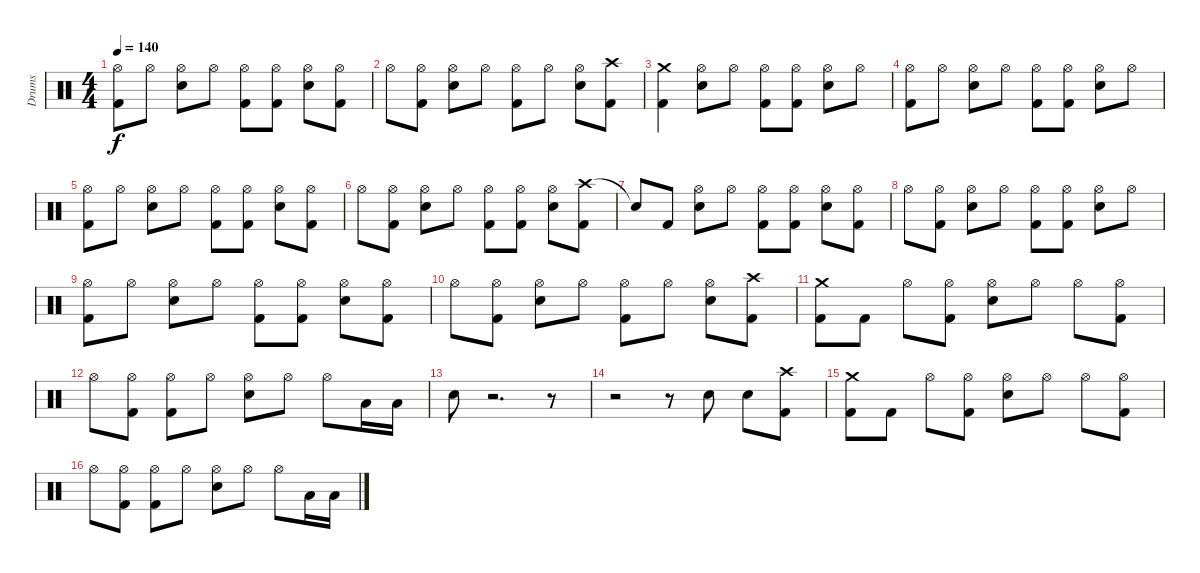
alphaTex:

\track ("Drums" "Drums") {instrument percussion}
\staff {score}
\articulation defaults
\ts (4 4)
\tempo 140
\clef neutral
\ks c
("Hi-Hat (open)" "Kick (hit) 2").8{dy f} "Hi-Hat (open)".8 ("Snare (hit) 2" "Hi-Hat (open)").8 "Hi-Hat (open)".8 ("Hi-Hat (open)" "Kick (hit) 2").8 ("Hi-Hat (open)" "Kick (hit) 2").8 ("Snare (hit) 2" "Hi-Hat (open)").8 ("Hi-Hat (open)" "Kick (hit) 2").8 |
"Hi-Hat (open)".8 ("Kick (hit) 2" "Hi-Hat (open)").8 ("Snare (hit) 2" "Hi-Hat (open)").8 "Hi-Hat (open)".8 ("Kick (hit) 2" "Hi-Hat (open)").8 "Hi-Hat (open)".8 ("Snare (hit) 2" "Hi-Hat (open)").8 ("Crash high (hit)" "Kick (hit) 2").8 |
("Crash medium (hit)" "Kick (hit) 2").4 ("Snare (hit) 2" "Hi-Hat (open)").8 "Hi-Hat (open)".8 ("Kick (hit) 2" "Hi-Hat (open)").8 ("Kick (hit) 2" "Hi-Hat (open)").8 ("Snare (hit) 2" "Hi-Hat (open)").8 "Hi-Hat (open)".8 |
("Hi-Hat (open)" "Kick (hit) 2").8 "Hi-Hat (open)".8 ("Hi-Hat (open)" "Snare (hit) 2").8 "Hi-Hat (open)".8 ("Hi-Hat (open)" "Kick (hit) 2").8 ("Hi-Hat (open)" "Kick (hit) 2").8 ("Hi-Hat (open)" "Snare (hit) 2").8 "Hi-Hat (open)".8 |
("Hi-Hat (open)" "Kick (hit) 2").8 "Hi-Hat (open)".8 ("Snare (hit) 2" "Hi-Hat (open)").8 "Hi-Hat (open)".8 ("Hi-Hat (open)" "Kick (hit) 2").8 ("Hi-Hat (open)" "Kick (hit) 2").8 ("Snare (hit) 2" "Hi-Hat (open)").8 ("Hi-Hat (open)" "Kick (hit) 2").8 |
"Hi-Hat (open)".8 ("Hi-Hat (open)" "Kick (hit) 2").8 ("Snare (hit) 2" "Hi-Hat (open)").8 "Hi-Hat (open)".8 ("Hi-Hat (open)" "Kick (hit) 2").8 ("Hi-Hat (open)" "Kick (hit) 2").8 ("Snare (hit) 2" "Hi-Hat (open)").8 ("Crash high (hit)" "Kick (hit) 2").8 |
"Snare (hit)"{t}.8 "Kick (hit) 2".8 ("Hi-Hat (open)" "Snare (hit) 2").8 "Hi-Hat (open)".8 ("Hi-Hat (open)" "Kick (hit) 2").8 ("Hi-Hat (open)" "Kick (hit) 2").8 ("Hi-Hat (open)" "Snare (hit) 2").8 ("Hi-Hat (open)" "Kick (hit) 2").8 |
"Hi-Hat (open)".8 ("Hi-Hat (open)" "Kick (hit) 2").8 ("Snare (hit) 2" "Hi-Hat (open)").8 "Hi-Hat (open)".8 ("Hi-Hat (open)" "Kick (hit) 2").8 ("Hi-Hat (open)" "Kick (hit) 2").8 ("Snare (hit) 2" "Hi-Hat (open)").8 "Hi-Hat (open)".8 |
("Hi-Hat (open)" "Kick (hit) 2").8 "Hi-Hat (open)".8 ("Hi-Hat (open)" "Snare (hit) 2").8 "Hi-Hat (open)".8 ("Hi-Hat (open)" "Kick (hit) 2").8 ("Hi-Hat (open)" "Kick (hit) 2").8 ("Hi-Hat (open)" "Snare (hit) 2").8 ("Hi-Hat (open)" "Kick (hit) 2").8 |
"Hi-Hat (open)".8 ("Hi-Hat (open)" "Kick (hit) 2").8 ("Hi-Hat (open)" "Snare (hit) 2").8 "Hi-Hat (open)".8 ("Kick (hit) 2" "Hi-Hat (open)").8 "Hi-Hat (open)".8 ("Hi-Hat (open)" "Snare (hit) 2").8 ("Crash high (hit)" "Kick (hit) 2").8 |
("Crash medium (hit)" "Kick (hit) 2").8 "Kick (hit) 2".8 "Hi-Hat (open)".8 ("Hi-Hat (open)" "Kick (hit) 2").8 ("Snare (hit) 2" "Hi-Hat (open)").8 "Hi-Hat (open)".8 "Hi-Hat (open)".8 ("Hi-Hat (open)" "Kick (hit) 2").8 |
"Hi-Hat (open)".8 ("Kick (hit) 2" "Hi-Hat (open)").8 ("Hi-Hat (open)" "Kick (hit) 2").8 "Hi-Hat (open)".8 ("Snare (hit) 2" "Hi-Hat (open)").8 "Hi-Hat (open)".8 "Hi-Hat (open)".8 "Low Tom (hit)".16 "Low Tom (hit)".16 |
"Snare (hit) 2".8 r.2{d} r.8 |
r.2 r.8 "Snare (hit) 2".8 "Snare (hit) 2".8 ("Kick (hit) 2" "Crash high (hit)").8 |
("Crash medium (hit)" "Kick (hit) 2").8 "Kick (hit) 2".8 "Hi-Hat (open)".8 ("Hi-Hat (open)" "Kick (hit) 2").8 ("Hi-Hat (open)" "Snare (hit) 2").8 "Hi-Hat (open)".8 "Hi-Hat (open)".8 ("Hi-Hat (open)" "Kick (hit) 2").8 |
"Hi-Hat (open)".8 ("Hi-Hat (open)" "Kick (hit) 2").8 ("Hi-Hat (open)" "Kick (hit) 2").8 "Hi-Hat (open)".8 ("Hi-Hat (open)" "Snare (hit) 2").8 "Hi-Hat (open)".8 "Hi-Hat (open)".8 "Low Tom (hit)".16 "Low Tom (hit)".16
